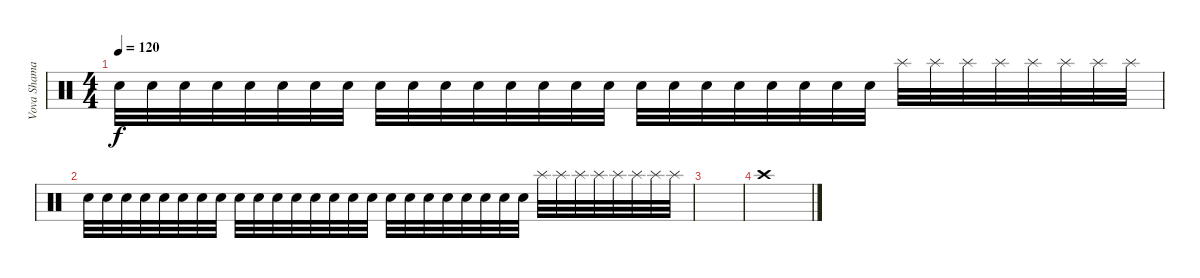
\track ("Vova Shamay 2" "Vova Shama") {instrument percussion}
\staff {score}
\articulation defaults
\ts (4 4)
\tempo 120
\clef neutral
\ks c "Hand Clap (hit)".32{dy f} "Hand Clap (hit)".32 "Hand Clap (hit)".32 "Hand Clap (hit)".32 "Hand Clap (hit)".32 "Hand Clap (hit)".32 "Hand Clap (hit)".32 "Hand Clap (hit)".32 "Electric Snare (hit)".32 "Electric Snare (hit)".32 "Electric Snare (hit)".32 "Electric Snare (hit)".32 "Electric Snare (hit)".32 "Electric Snare (hit)".32 "Electric Snare (hit)".32 "Electric Snare (hit)".32 "Electric Snare (hit)".32 "Electric Snare (hit)".32 "Electric Snare (hit)".32 "Electric Snare (hit)".32 "Electric Snare (hit)".32 "Electric Snare (hit)".32 "Electric Snare (hit)".32 "Electric Snare (hit)".32 "Splash (hit)".32 "Splash (hit)".32 "Splash (hit)".32 "Splash (hit)".32 "Splash (hit)".32 "Splash (hit)".32 "Splash (hit)".32 "Splash (hit)".32
|
"Hand Clap (hit)".32 "Hand Clap (hit)".32 "Hand Clap (hit)".32 "Hand Clap (hit)".32 "Hand Clap (hit)".32 "Hand Clap (hit)".32 "Hand Clap (hit)".32 "Hand Clap (hit)".32 "Electric Snare (hit)".32 "Electric Snare (hit)".32 "Electric Snare (hit)".32 "Electric Snare (hit)".32 "Electric Snare (hit)".32 "Electric Snare (hit)".32 "Electric Snare (hit)".32 "Electric Snare (hit)".32 "Electric Snare (hit)".32 "Electric Snare (hit)".32 "Electric Snare (hit)".32 "Electric Snare (hit)".32 "Electric Snare (hit)".32 "Electric Snare (hit)".32 "Electric Snare (hit)".32 "Electric Snare (hit)".32 "Splash (hit)".32 "Splash (hit)".32 "Splash (hit)".32 "Splash (hit)".32 "Splash (hit)".32 "Splash (hit)".32 "Splash (hit)".32 "Splash (hit)".32 |
|
"Crash high (hit)".1
